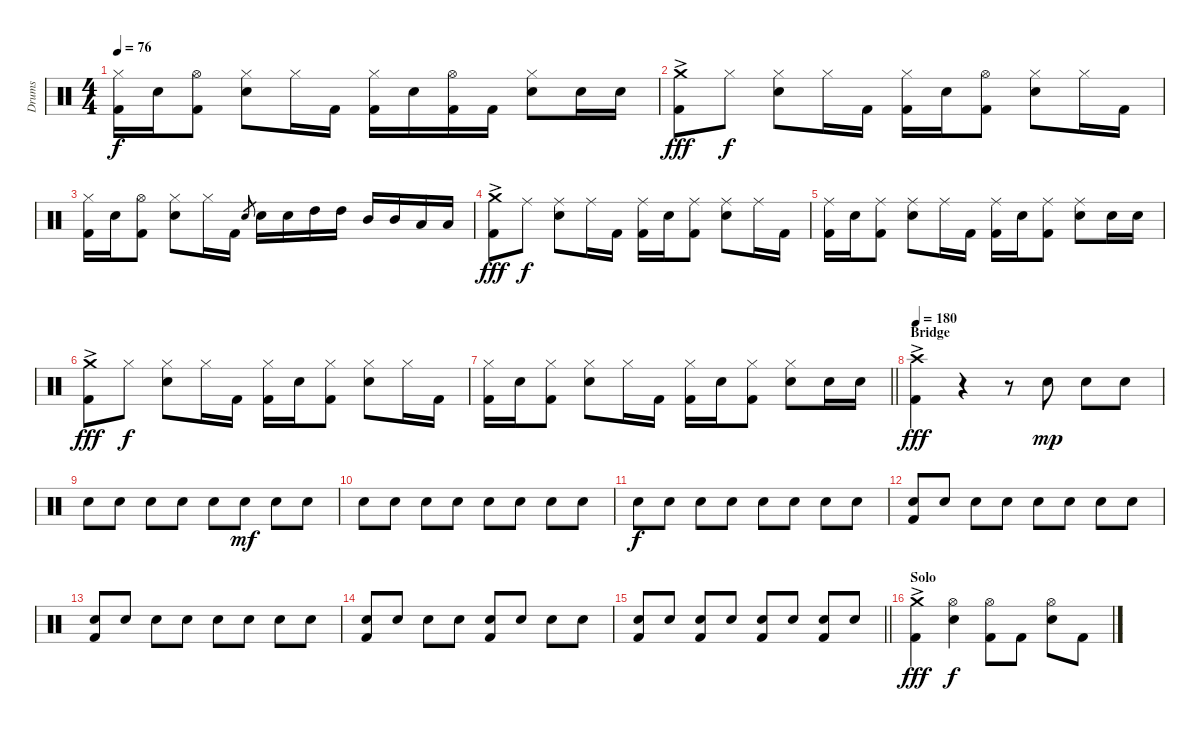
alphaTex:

\track ("Drums" "Drums") {instrument percussion}
\staff {score}
\articulation defaults
\ts (4 4)
\tempo 76
\clef neutral
\ks c
("Hi-Hat (closed)" "Kick (hit) 2").16{dy f} "Snare (hit) 2".16 ("Hi-Hat (open)" "Kick (hit) 2").8 ("Hi-Hat (closed)" "Snare (hit) 2").8 "Hi-Hat (closed)".16 "Kick (hit) 2".16 ("Hi-Hat (closed)" "Kick (hit) 2").16 "Snare (hit) 2".16 ("Hi-Hat (open)" "Kick (hit) 2").16 "Kick (hit) 2".16 ("Hi-Hat (closed)" "Snare (hit) 2").8 "Snare (hit) 2".16 "Snare (hit) 2".16 |
("Crash medium (hit)"{ac} "Kick (hit) 2").8{dy fff} "Hi-Hat (closed)".8{dy f} ("Hi-Hat (closed)" "Snare (hit) 2").8 "Hi-Hat (closed)".16 "Kick (hit) 2".16 ("Hi-Hat (closed)" "Kick (hit) 2").16 "Snare (hit) 2".16 ("Hi-Hat (open)" "Kick (hit) 2").8 ("Hi-Hat (closed)" "Snare (hit) 2").8 "Hi-Hat (closed)".16 "Kick (hit) 2".16 |
("Hi-Hat (closed)" "Kick (hit) 2").16 "Snare (hit) 2".16 ("Hi-Hat (open)" "Kick (hit) 2").8 ("Hi-Hat (closed)" "Snare (hit) 2").8 "Hi-Hat (closed)".16 "Kick (hit) 2".16 "Snare (hit) 2".8{gr} "Snare (hit) 2".16 "Snare (hit) 2".16 "High Tom (hit)".16 "High Tom (hit)".16 "Mid Tom (hit)".16 "Mid Tom (hit)".16 "Low Tom (hit)".16 "Low Tom (hit)".16 |
("Crash medium (hit)"{ac} "Kick (hit) 2").8{dy fff} "Ride (middle)".8{dy f} ("Ride (middle)" "Snare (hit) 2").8 "Ride (middle)".16 "Kick (hit) 2".16 ("Ride (middle)" "Kick (hit) 2").16 "Snare (hit) 2".16 ("Ride (middle)" "Kick (hit) 2").8 ("Ride (middle)" "Snare (hit) 2").8 "Ride (middle)".16 "Kick (hit) 2".16 |
("Ride (middle)" "Kick (hit) 2").16 "Snare (hit) 2".16 ("Ride (middle)" "Kick (hit) 2").8 ("Ride (middle)" "Snare (hit) 2").8 "Ride (middle)".16 "Kick (hit) 2".16 ("Ride (middle)" "Kick (hit) 2").16 "Snare (hit) 2".16 ("Ride (middle)" "Kick (hit) 2").8 ("Ride (middle)" "Snare (hit) 2").8 "Snare (hit) 2".16 "Snare (hit) 2".16 |
("Crash medium (hit)"{ac} "Kick (hit) 2").8{dy fff} "Hi-Hat (closed)".8{dy f} ("Hi-Hat (closed)" "Snare (hit) 2").8 "Hi-Hat (closed)".16 "Kick (hit) 2".16 ("Hi-Hat (closed)" "Kick (hit) 2").16 "Snare (hit) 2".16 ("Hi-Hat (closed)" "Kick (hit) 2").8 ("Hi-Hat (closed)" "Snare (hit) 2").8 "Hi-Hat (closed)".16 "Kick (hit) 2".16 |
\barLineRight lightlight
("Hi-Hat (closed)" "Kick (hit) 2").16 "Snare (hit) 2".16 ("Hi-Hat (closed)" "Kick (hit) 2").8 ("Hi-Hat (closed)" "Snare (hit) 2").8 "Hi-Hat (closed)".16 "Kick (hit) 2".16 ("Hi-Hat (closed)" "Kick (hit) 2").16 "Snare (hit) 2".16 ("Hi-Hat (closed)" "Kick (hit) 2").8 ("Hi-Hat (closed)" "Snare (hit) 2").8 "Snare (hit) 2".16 "Snare (hit) 2".16 |
\section ("" "Bridge")
\tempo 180
("Crash high (hit)"{ac} "Kick (hit) 2").4{dy fff} r.4 r.8 "Snare (hit) 2".8{dy mp} "Snare (hit) 2".8 "Snare (hit) 2".8 |
"Snare (hit) 2".8 "Snare (hit) 2".8 "Snare (hit) 2".8 "Snare (hit) 2".8 "Snare (hit) 2".8 "Snare (hit) 2".8{dy mf} "Snare (hit) 2".8 "Snare (hit) 2".8 |
"Snare (hit) 2".8 "Snare (hit) 2".8 "Snare (hit) 2".8 "Snare (hit) 2".8 "Snare (hit) 2".8 "Snare (hit) 2".8 "Snare (hit) 2".8 "Snare (hit) 2".8 |
"Snare (hit) 2".8{dy f} "Snare (hit) 2".8 "Snare (hit) 2".8 "Snare (hit) 2".8 "Snare (hit) 2".8 "Snare (hit) 2".8 "Snare (hit) 2".8 "Snare (hit) 2".8 |
("Snare (hit) 2" "Kick (hit) 2").8 "Snare (hit) 2".8 "Snare (hit) 2".8 "Snare (hit) 2".8 "Snare (hit) 2".8 "Snare (hit) 2".8 "Snare (hit) 2".8 "Snare (hit) 2".8 |
("Snare (hit) 2" "Kick (hit) 2").8 "Snare (hit) 2".8 "Snare (hit) 2".8 "Snare (hit) 2".8 "Snare (hit) 2".8 "Snare (hit) 2".8 "Snare (hit) 2".8 "Snare (hit) 2".8 |
("Snare (hit) 2" "Kick (hit) 2").8 "Snare (hit) 2".8 "Snare (hit) 2".8 "Snare (hit) 2".8 ("Snare (hit) 2" "Kick (hit) 2").8 "Snare (hit) 2".8 "Snare (hit) 2".8 "Snare (hit) 2".8 |
\barLineRight lightlight
("Snare (hit) 2" "Kick (hit) 2").8 "Snare (hit) 2".8 ("Snare (hit) 2" "Kick (hit) 2").8 "Snare (hit) 2".8 ("Snare (hit) 2" "Kick (hit) 2").8 "Snare (hit) 2".8 ("Snare (hit) 2" "Kick (hit) 2").8 "Snare (hit) 2".8 |
\section ("" "Solo")
("Crash medium (hit)"{ac} "Kick (hit) 2").4{dy fff} ("Hi-Hat (open)" "Snare (hit) 2").4{dy f} ("Hi-Hat (open)" "Kick (hit) 2").8 "Kick (hit) 2".8 ("Hi-Hat (open)" "Snare (hit) 2").8 "Kick (hit) 2".8
